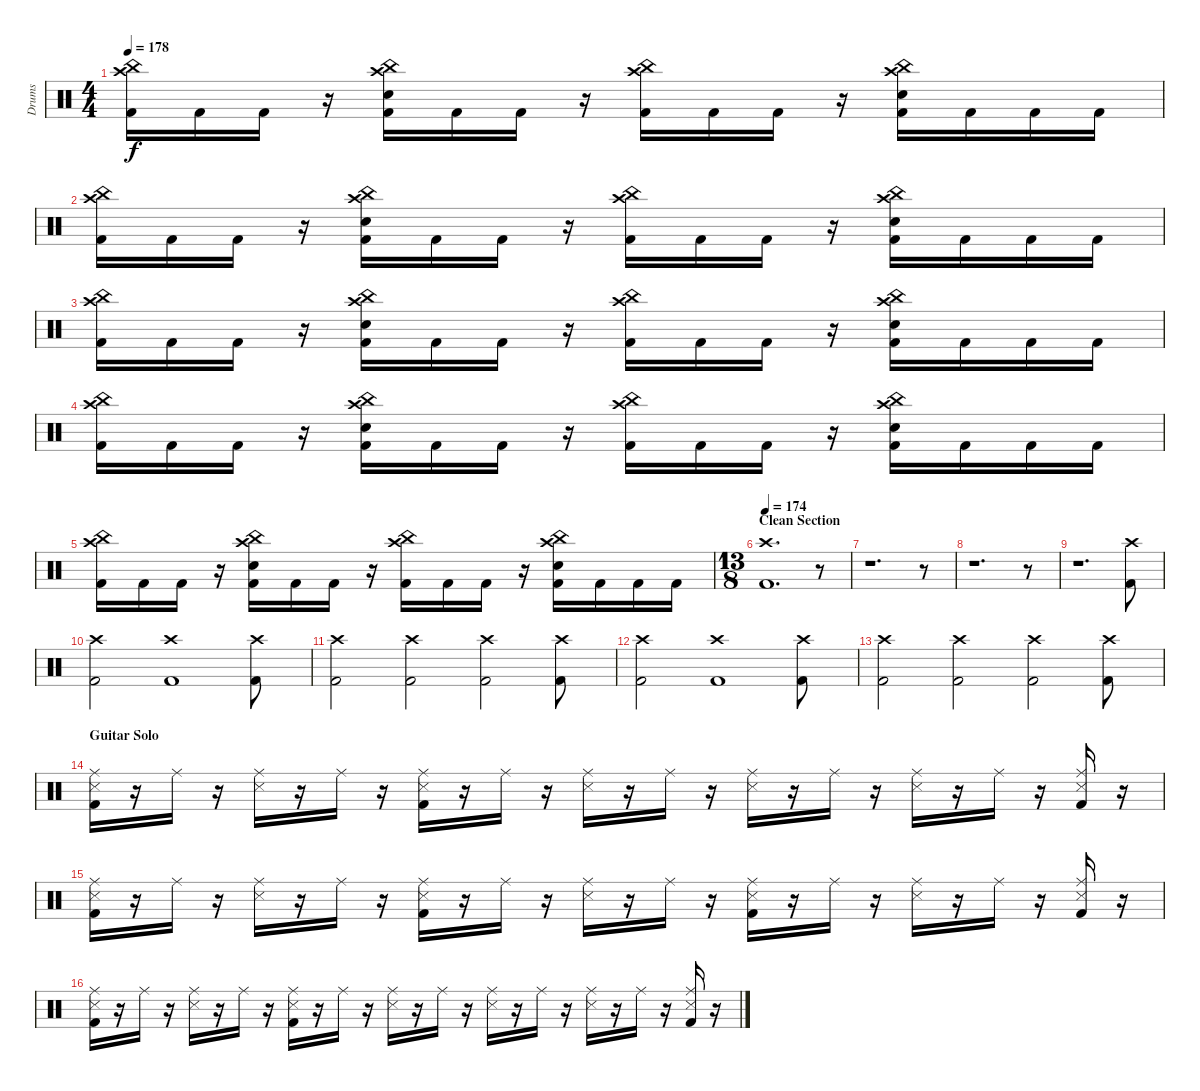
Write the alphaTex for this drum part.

\track ("Drums" "Drums") {instrument percussion}
\staff {score}
\articulation defaults
\ts (4 4)
\tempo 178
\clef neutral
\ks c
("China (hit)" "Crash high (hit)" "Kick (hit) 2").16{dy f} "Kick (hit) 2".16 "Kick (hit) 2".16 r.16 ("China (hit)" "Crash high (hit)" "Electric Snare (hit)" "Kick (hit) 2").16 "Kick (hit) 2".16 "Kick (hit) 2".16 r.16 ("China (hit)" "Crash high (hit)" "Kick (hit) 2").16 "Kick (hit) 2".16 "Kick (hit) 2".16 r.16 ("China (hit)" "Crash high (hit)" "Electric Snare (hit)" "Kick (hit) 2").16 "Kick (hit) 2".16 "Kick (hit) 2".16 "Kick (hit) 2".16 |
("China (hit)" "Crash high (hit)" "Kick (hit) 2").16 "Kick (hit) 2".16 "Kick (hit) 2".16 r.16 ("China (hit)" "Crash high (hit)" "Electric Snare (hit)" "Kick (hit) 2").16 "Kick (hit) 2".16 "Kick (hit) 2".16 r.16 ("China (hit)" "Crash high (hit)" "Kick (hit) 2").16 "Kick (hit) 2".16 "Kick (hit) 2".16 r.16 ("China (hit)" "Crash high (hit)" "Electric Snare (hit)" "Kick (hit) 2").16 "Kick (hit) 2".16 "Kick (hit) 2".16 "Kick (hit) 2".16 |
("China (hit)" "Crash high (hit)" "Kick (hit) 2").16 "Kick (hit) 2".16 "Kick (hit) 2".16 r.16 ("China (hit)" "Crash high (hit)" "Electric Snare (hit)" "Kick (hit) 2").16 "Kick (hit) 2".16 "Kick (hit) 2".16 r.16 ("China (hit)" "Crash high (hit)" "Kick (hit) 2").16 "Kick (hit) 2".16 "Kick (hit) 2".16 r.16 ("China (hit)" "Crash high (hit)" "Electric Snare (hit)" "Kick (hit) 2").16 "Kick (hit) 2".16 "Kick (hit) 2".16 "Kick (hit) 2".16 |
("China (hit)" "Crash high (hit)" "Kick (hit) 2").16 "Kick (hit) 2".16 "Kick (hit) 2".16 r.16 ("China (hit)" "Crash high (hit)" "Electric Snare (hit)" "Kick (hit) 2").16 "Kick (hit) 2".16 "Kick (hit) 2".16 r.16 ("China (hit)" "Crash high (hit)" "Kick (hit) 2").16 "Kick (hit) 2".16 "Kick (hit) 2".16 r.16 ("China (hit)" "Crash high (hit)" "Electric Snare (hit)" "Kick (hit) 2").16 "Kick (hit) 2".16 "Kick (hit) 2".16 "Kick (hit) 2".16 |
("China (hit)" "Crash high (hit)" "Kick (hit) 2").16 "Kick (hit) 2".16 "Kick (hit) 2".16 r.16 ("China (hit)" "Crash high (hit)" "Electric Snare (hit)" "Kick (hit) 2").16 "Kick (hit) 2".16 "Kick (hit) 2".16 r.16 ("China (hit)" "Crash high (hit)" "Kick (hit) 2").16 "Kick (hit) 2".16 "Kick (hit) 2".16 r.16 ("China (hit)" "Crash high (hit)" "Electric Snare (hit)" "Kick (hit) 2").16 "Kick (hit) 2".16 "Kick (hit) 2".16 "Kick (hit) 2".16 |
\ts (13 8)
\section ("" "Clean Section")
\tempo 174
("Crash high (hit)" "Kick (hit) 2").1{d} r.8 |
r.1{d} r.8 |
r.1{d} r.8 |
r.1{d} ("Crash high (hit)" "Kick (hit) 2").8 |
("Crash high (hit)" "Kick (hit) 2").2 ("Crash high (hit)" "Kick (hit) 2").1 ("Crash high (hit)" "Kick (hit) 2").8 |
("Crash high (hit)" "Kick (hit) 2").2 ("Crash high (hit)" "Kick (hit) 2").2 ("Crash high (hit)" "Kick (hit) 2").2 ("Crash high (hit)" "Kick (hit) 2").8 |
("Crash high (hit)" "Kick (hit) 2").2 ("Crash high (hit)" "Kick (hit) 2").1 ("Crash high (hit)" "Kick (hit) 2").8 |
("Crash high (hit)" "Kick (hit) 2").2 ("Crash high (hit)" "Kick (hit) 2").2 ("Crash high (hit)" "Kick (hit) 2").2 ("Crash high (hit)" "Kick (hit) 2").8 |
\section ("" "Guitar Solo")
("Ride (middle)" "Snare (side stick) 3" "Kick (hit) 2").16 r.16 "Ride (middle)".16 r.16 ("Ride (middle)" "Snare (side stick) 3").16 r.16 "Ride (middle)".16 r.16 ("Ride (middle)" "Snare (side stick) 3" "Kick (hit) 2").16 r.16 "Ride (middle)".16 r.16 ("Ride (middle)" "Snare (side stick) 3").16 r.16 "Ride (middle)".16 r.16 ("Ride (middle)" "Snare (side stick) 3").16 r.16 "Ride (middle)".16 r.16 ("Ride (middle)" "Snare (side stick) 3").16 r.16 "Ride (middle)".16 r.16 ("Ride (middle)" "Snare (side stick) 3" "Kick (hit) 2").16 r.16 |
("Ride (middle)" "Snare (side stick) 3" "Kick (hit) 2").16 r.16 "Ride (middle)".16 r.16 ("Ride (middle)" "Snare (side stick) 3").16 r.16 "Ride (middle)".16 r.16 ("Ride (middle)" "Snare (side stick) 3" "Kick (hit) 2").16 r.16 "Ride (middle)".16 r.16 ("Ride (middle)" "Snare (side stick) 3").16 r.16 "Ride (middle)".16 r.16 ("Ride (middle)" "Snare (side stick) 3" "Kick (hit) 2").16 r.16 "Ride (middle)".16 r.16 ("Ride (middle)" "Snare (side stick) 3").16 r.16 "Ride (middle)".16 r.16 ("Ride (middle)" "Snare (side stick) 3" "Kick (hit) 2").16 r.16 |
("Ride (middle)" "Snare (side stick) 3" "Kick (hit) 2").16 r.16 "Ride (middle)".16 r.16 ("Ride (middle)" "Snare (side stick) 3").16 r.16 "Ride (middle)".16 r.16 ("Ride (middle)" "Snare (side stick) 3" "Kick (hit) 2").16 r.16 "Ride (middle)".16 r.16 ("Ride (middle)" "Snare (side stick) 3").16 r.16 "Ride (middle)".16 r.16 ("Ride (middle)" "Snare (side stick) 3").16 r.16 "Ride (middle)".16 r.16 ("Ride (middle)" "Snare (side stick) 3").16 r.16 "Ride (middle)".16 r.16 ("Ride (middle)" "Snare (side stick) 3" "Kick (hit) 2").16 r.16
